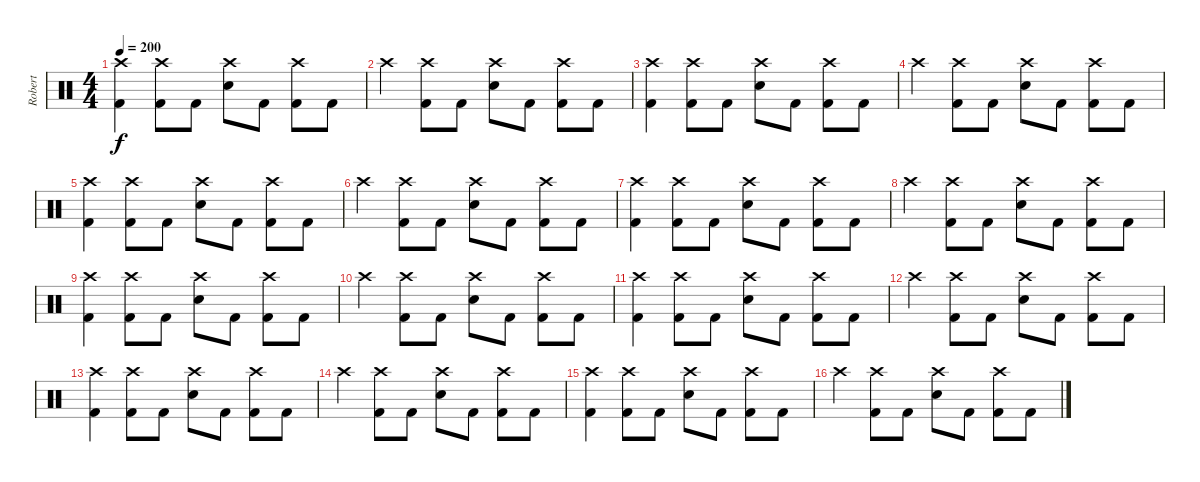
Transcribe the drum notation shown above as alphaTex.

\track ("Robert" "Robert") {instrument percussion}
\staff {score}
\articulation defaults
\ts (4 4)
\tempo 200
\clef neutral
\ks c
("Crash high (hit)" "Kick (hit) 2").4{dy f} ("Crash high (hit)" "Kick (hit) 2").8 "Kick (hit) 2".8 ("Crash high (hit)" "Electric Snare (hit)").8 "Kick (hit) 2".8 ("Crash high (hit)" "Kick (hit) 2").8 "Kick (hit) 2".8 |
"Crash high (hit)".4 ("Crash high (hit)" "Kick (hit) 2").8 "Kick (hit) 2".8 ("Crash high (hit)" "Electric Snare (hit)").8 "Kick (hit) 2".8 ("Crash high (hit)" "Kick (hit) 2").8 "Kick (hit) 2".8 |
("Crash high (hit)" "Kick (hit) 2").4 ("Crash high (hit)" "Kick (hit) 2").8 "Kick (hit) 2".8 ("Crash high (hit)" "Electric Snare (hit)").8 "Kick (hit) 2".8 ("Crash high (hit)" "Kick (hit) 2").8 "Kick (hit) 2".8 |
"Crash high (hit)".4 ("Crash high (hit)" "Kick (hit) 2").8 "Kick (hit) 2".8 ("Crash high (hit)" "Electric Snare (hit)").8 "Kick (hit) 2".8 ("Crash high (hit)" "Kick (hit) 2").8 "Kick (hit) 2".8 |
("Crash high (hit)" "Kick (hit) 2").4 ("Crash high (hit)" "Kick (hit) 2").8 "Kick (hit) 2".8 ("Crash high (hit)" "Electric Snare (hit)").8 "Kick (hit) 2".8 ("Crash high (hit)" "Kick (hit) 2").8 "Kick (hit) 2".8 |
"Crash high (hit)".4 ("Crash high (hit)" "Kick (hit) 2").8 "Kick (hit) 2".8 ("Crash high (hit)" "Electric Snare (hit)").8 "Kick (hit) 2".8 ("Crash high (hit)" "Kick (hit) 2").8 "Kick (hit) 2".8 |
("Crash high (hit)" "Kick (hit) 2").4 ("Crash high (hit)" "Kick (hit) 2").8 "Kick (hit) 2".8 ("Crash high (hit)" "Electric Snare (hit)").8 "Kick (hit) 2".8 ("Crash high (hit)" "Kick (hit) 2").8 "Kick (hit) 2".8 |
"Crash high (hit)".4 ("Crash high (hit)" "Kick (hit) 2").8 "Kick (hit) 2".8 ("Crash high (hit)" "Electric Snare (hit)").8 "Kick (hit) 2".8 ("Crash high (hit)" "Kick (hit) 2").8 "Kick (hit) 2".8 |
("Crash high (hit)" "Kick (hit) 2").4 ("Crash high (hit)" "Kick (hit) 2").8 "Kick (hit) 2".8 ("Crash high (hit)" "Electric Snare (hit)").8 "Kick (hit) 2".8 ("Crash high (hit)" "Kick (hit) 2").8 "Kick (hit) 2".8 |
"Crash high (hit)".4 ("Crash high (hit)" "Kick (hit) 2").8 "Kick (hit) 2".8 ("Crash high (hit)" "Electric Snare (hit)").8 "Kick (hit) 2".8 ("Crash high (hit)" "Kick (hit) 2").8 "Kick (hit) 2".8 |
("Crash high (hit)" "Kick (hit) 2").4 ("Crash high (hit)" "Kick (hit) 2").8 "Kick (hit) 2".8 ("Crash high (hit)" "Electric Snare (hit)").8 "Kick (hit) 2".8 ("Crash high (hit)" "Kick (hit) 2").8 "Kick (hit) 2".8 |
"Crash high (hit)".4 ("Crash high (hit)" "Kick (hit) 2").8 "Kick (hit) 2".8 ("Crash high (hit)" "Electric Snare (hit)").8 "Kick (hit) 2".8 ("Crash high (hit)" "Kick (hit) 2").8 "Kick (hit) 2".8 |
("Crash high (hit)" "Kick (hit) 2").4 ("Crash high (hit)" "Kick (hit) 2").8 "Kick (hit) 2".8 ("Crash high (hit)" "Electric Snare (hit)").8 "Kick (hit) 2".8 ("Crash high (hit)" "Kick (hit) 2").8 "Kick (hit) 2".8 |
"Crash high (hit)".4 ("Crash high (hit)" "Kick (hit) 2").8 "Kick (hit) 2".8 ("Crash high (hit)" "Electric Snare (hit)").8 "Kick (hit) 2".8 ("Crash high (hit)" "Kick (hit) 2").8 "Kick (hit) 2".8 |
("Crash high (hit)" "Kick (hit) 2").4 ("Crash high (hit)" "Kick (hit) 2").8 "Kick (hit) 2".8 ("Crash high (hit)" "Electric Snare (hit)").8 "Kick (hit) 2".8 ("Crash high (hit)" "Kick (hit) 2").8 "Kick (hit) 2".8 |
"Crash high (hit)".4 ("Crash high (hit)" "Kick (hit) 2").8 "Kick (hit) 2".8 ("Crash high (hit)" "Electric Snare (hit)").8 "Kick (hit) 2".8 ("Crash high (hit)" "Kick (hit) 2").8 "Kick (hit) 2".8
